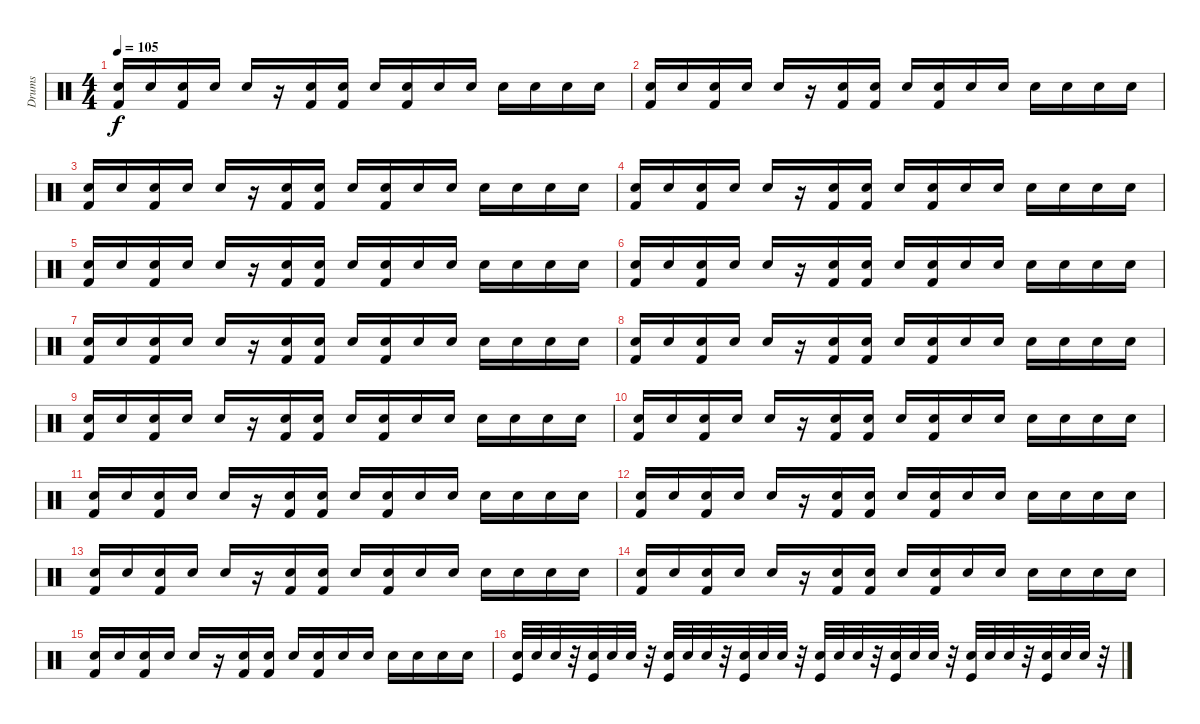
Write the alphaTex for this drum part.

\track ("Drums" "Drums") {instrument percussion}
\staff {score}
\articulation defaults
\ts (4 4)
\tempo 105
\clef neutral
\ks c
("Electric Snare (hit)" "Kick (hit) 2").16{dy f volume 7} "Electric Snare (hit)".16 ("Electric Snare (hit)" "Kick (hit) 2").16 "Electric Snare (hit)".16 "Snare (hit) 2".16{volume 16} r.16 ("Electric Snare (hit)" "Kick (hit) 2").16{volume 7} ("Electric Snare (hit)" "Kick (hit) 2").16 "Electric Snare (hit)".16 ("Snare (hit) 2" "Kick (hit) 2").16{volume 16} "Electric Snare (hit)".16{volume 7} "Electric Snare (hit)".16 "Snare (hit) 2".16{volume 16} "Electric Snare (hit)".16{volume 7} "Electric Snare (hit)".16 "Electric Snare (hit)".16 |
("Electric Snare (hit)" "Kick (hit) 2").16{volume 7} "Electric Snare (hit)".16 ("Electric Snare (hit)" "Kick (hit) 2").16 "Electric Snare (hit)".16 "Snare (hit) 2".16{volume 16} r.16 ("Electric Snare (hit)" "Kick (hit) 2").16{volume 7} ("Electric Snare (hit)" "Kick (hit) 2").16 "Electric Snare (hit)".16 ("Snare (hit) 2" "Kick (hit) 2").16{volume 16} "Electric Snare (hit)".16{volume 7} "Electric Snare (hit)".16 "Snare (hit) 2".16{volume 16} "Electric Snare (hit)".16{volume 7} "Electric Snare (hit)".16 "Electric Snare (hit)".16 |
("Electric Snare (hit)" "Kick (hit) 2").16{volume 7} "Electric Snare (hit)".16 ("Electric Snare (hit)" "Kick (hit) 2").16 "Electric Snare (hit)".16 "Snare (hit) 2".16{volume 16} r.16 ("Electric Snare (hit)" "Kick (hit) 2").16{volume 7} ("Electric Snare (hit)" "Kick (hit) 2").16 "Electric Snare (hit)".16 ("Snare (hit) 2" "Kick (hit) 2").16{volume 16} "Electric Snare (hit)".16{volume 7} "Electric Snare (hit)".16 "Snare (hit) 2".16{volume 16} "Electric Snare (hit)".16{volume 7} "Electric Snare (hit)".16 "Electric Snare (hit)".16 |
("Electric Snare (hit)" "Kick (hit) 2").16{volume 7} "Electric Snare (hit)".16 ("Electric Snare (hit)" "Kick (hit) 2").16 "Electric Snare (hit)".16 "Snare (hit) 2".16{volume 16} r.16 ("Electric Snare (hit)" "Kick (hit) 2").16{volume 7} ("Electric Snare (hit)" "Kick (hit) 2").16 "Electric Snare (hit)".16 ("Snare (hit) 2" "Kick (hit) 2").16{volume 16} "Electric Snare (hit)".16{volume 7} "Electric Snare (hit)".16 "Snare (hit) 2".16{volume 16} "Electric Snare (hit)".16{volume 7} "Electric Snare (hit)".16 "Electric Snare (hit)".16 |
("Electric Snare (hit)" "Kick (hit) 2").16{volume 7} "Electric Snare (hit)".16 ("Electric Snare (hit)" "Kick (hit) 2").16 "Electric Snare (hit)".16 "Snare (hit) 2".16{volume 16} r.16 ("Electric Snare (hit)" "Kick (hit) 2").16{volume 7} ("Electric Snare (hit)" "Kick (hit) 2").16 "Electric Snare (hit)".16 ("Snare (hit) 2" "Kick (hit) 2").16{volume 16} "Electric Snare (hit)".16{volume 7} "Electric Snare (hit)".16 "Snare (hit) 2".16{volume 16} "Electric Snare (hit)".16{volume 7} "Electric Snare (hit)".16 "Electric Snare (hit)".16 |
("Electric Snare (hit)" "Kick (hit) 2").16{volume 7} "Electric Snare (hit)".16 ("Electric Snare (hit)" "Kick (hit) 2").16 "Electric Snare (hit)".16 "Snare (hit) 2".16{volume 16} r.16 ("Electric Snare (hit)" "Kick (hit) 2").16{volume 7} ("Electric Snare (hit)" "Kick (hit) 2").16 "Electric Snare (hit)".16 ("Snare (hit) 2" "Kick (hit) 2").16{volume 16} "Electric Snare (hit)".16{volume 7} "Electric Snare (hit)".16 "Snare (hit) 2".16{volume 16} "Electric Snare (hit)".16{volume 7} "Electric Snare (hit)".16 "Electric Snare (hit)".16 |
("Electric Snare (hit)" "Kick (hit) 2").16{volume 7} "Electric Snare (hit)".16 ("Electric Snare (hit)" "Kick (hit) 2").16 "Electric Snare (hit)".16 "Snare (hit) 2".16{volume 16} r.16 ("Electric Snare (hit)" "Kick (hit) 2").16{volume 7} ("Electric Snare (hit)" "Kick (hit) 2").16 "Electric Snare (hit)".16 ("Snare (hit) 2" "Kick (hit) 2").16{volume 16} "Electric Snare (hit)".16{volume 7} "Electric Snare (hit)".16 "Snare (hit) 2".16{volume 16} "Electric Snare (hit)".16{volume 7} "Electric Snare (hit)".16 "Electric Snare (hit)".16 |
("Electric Snare (hit)" "Kick (hit) 2").16{volume 7} "Electric Snare (hit)".16 ("Electric Snare (hit)" "Kick (hit) 2").16 "Electric Snare (hit)".16 "Snare (hit) 2".16{volume 16} r.16 ("Electric Snare (hit)" "Kick (hit) 2").16{volume 7} ("Electric Snare (hit)" "Kick (hit) 2").16 "Electric Snare (hit)".16 ("Snare (hit) 2" "Kick (hit) 2").16{volume 16} "Electric Snare (hit)".16{volume 7} "Electric Snare (hit)".16 "Snare (hit) 2".16{volume 16} "Electric Snare (hit)".16{volume 7} "Electric Snare (hit)".16 "Electric Snare (hit)".16 |
("Electric Snare (hit)" "Kick (hit) 2").16{volume 7} "Electric Snare (hit)".16 ("Electric Snare (hit)" "Kick (hit) 2").16 "Electric Snare (hit)".16 "Snare (hit) 2".16{volume 16} r.16 ("Electric Snare (hit)" "Kick (hit) 2").16{volume 7} ("Electric Snare (hit)" "Kick (hit) 2").16 "Electric Snare (hit)".16 ("Snare (hit) 2" "Kick (hit) 2").16{volume 16} "Electric Snare (hit)".16{volume 7} "Electric Snare (hit)".16 "Snare (hit) 2".16{volume 16} "Electric Snare (hit)".16{volume 7} "Electric Snare (hit)".16 "Electric Snare (hit)".16 |
("Electric Snare (hit)" "Kick (hit) 2").16{volume 7} "Electric Snare (hit)".16 ("Electric Snare (hit)" "Kick (hit) 2").16 "Electric Snare (hit)".16 "Snare (hit) 2".16{volume 16} r.16 ("Electric Snare (hit)" "Kick (hit) 2").16{volume 7} ("Electric Snare (hit)" "Kick (hit) 2").16 "Electric Snare (hit)".16 ("Snare (hit) 2" "Kick (hit) 2").16{volume 16} "Electric Snare (hit)".16{volume 7} "Electric Snare (hit)".16 "Snare (hit) 2".16{volume 16} "Electric Snare (hit)".16{volume 7} "Electric Snare (hit)".16 "Electric Snare (hit)".16 |
("Electric Snare (hit)" "Kick (hit) 2").16{volume 7} "Electric Snare (hit)".16 ("Electric Snare (hit)" "Kick (hit) 2").16 "Electric Snare (hit)".16 "Snare (hit) 2".16{volume 16} r.16 ("Electric Snare (hit)" "Kick (hit) 2").16{volume 7} ("Electric Snare (hit)" "Kick (hit) 2").16 "Electric Snare (hit)".16 ("Snare (hit) 2" "Kick (hit) 2").16{volume 16} "Electric Snare (hit)".16{volume 7} "Electric Snare (hit)".16 "Snare (hit) 2".16{volume 16} "Electric Snare (hit)".16{volume 7} "Electric Snare (hit)".16 "Electric Snare (hit)".16 |
("Electric Snare (hit)" "Kick (hit) 2").16{volume 7} "Electric Snare (hit)".16 ("Electric Snare (hit)" "Kick (hit) 2").16 "Electric Snare (hit)".16 "Snare (hit) 2".16{volume 16} r.16 ("Electric Snare (hit)" "Kick (hit) 2").16{volume 7} ("Electric Snare (hit)" "Kick (hit) 2").16 "Electric Snare (hit)".16 ("Snare (hit) 2" "Kick (hit) 2").16{volume 16} "Electric Snare (hit)".16{volume 7} "Electric Snare (hit)".16 "Snare (hit) 2".16{volume 16} "Electric Snare (hit)".16{volume 7} "Electric Snare (hit)".16 "Electric Snare (hit)".16 |
("Electric Snare (hit)" "Kick (hit) 2").16{volume 7} "Electric Snare (hit)".16 ("Electric Snare (hit)" "Kick (hit) 2").16 "Electric Snare (hit)".16 "Snare (hit) 2".16{volume 16} r.16 ("Electric Snare (hit)" "Kick (hit) 2").16{volume 7} ("Electric Snare (hit)" "Kick (hit) 2").16 "Electric Snare (hit)".16 ("Snare (hit) 2" "Kick (hit) 2").16{volume 16} "Electric Snare (hit)".16{volume 7} "Electric Snare (hit)".16 "Snare (hit) 2".16{volume 16} "Electric Snare (hit)".16{volume 7} "Electric Snare (hit)".16 "Electric Snare (hit)".16 |
("Electric Snare (hit)" "Kick (hit) 2").16{volume 7} "Electric Snare (hit)".16 ("Electric Snare (hit)" "Kick (hit) 2").16 "Electric Snare (hit)".16 "Snare (hit) 2".16{volume 16} r.16 ("Electric Snare (hit)" "Kick (hit) 2").16{volume 7} ("Electric Snare (hit)" "Kick (hit) 2").16 "Electric Snare (hit)".16 ("Snare (hit) 2" "Kick (hit) 2").16{volume 16} "Electric Snare (hit)".16{volume 7} "Electric Snare (hit)".16 "Snare (hit) 2".16{volume 16} "Electric Snare (hit)".16{volume 7} "Electric Snare (hit)".16 "Electric Snare (hit)".16 |
("Electric Snare (hit)" "Kick (hit) 2").16{volume 7} "Electric Snare (hit)".16 ("Electric Snare (hit)" "Kick (hit) 2").16 "Electric Snare (hit)".16 "Snare (hit) 2".16{volume 16} r.16 ("Electric Snare (hit)" "Kick (hit) 2").16{volume 7} ("Electric Snare (hit)" "Kick (hit) 2").16 "Electric Snare (hit)".16 ("Snare (hit) 2" "Kick (hit) 2").16{volume 16} "Electric Snare (hit)".16{volume 7} "Electric Snare (hit)".16 "Snare (hit) 2".16{volume 16} "Electric Snare (hit)".16{volume 7} "Electric Snare (hit)".16 "Electric Snare (hit)".16 |
("Snare (hit) 2" "Kick (hit)").32{volume 9} "Snare (hit) 2".32 "Snare (hit) 2".32 r.32 ("Snare (hit) 2" "Kick (hit)").32{volume 10} "Snare (hit) 2".32 "Snare (hit) 2".32 r.32 ("Snare (hit) 2" "Kick (hit)").32{volume 11} "Snare (hit) 2".32 "Snare (hit) 2".32 r.32 ("Snare (hit) 2" "Kick (hit)").32{volume 12} "Snare (hit) 2".32 "Snare (hit) 2".32 r.32 ("Snare (hit) 2" "Kick (hit)").32{volume 13} "Snare (hit) 2".32 "Snare (hit) 2".32 r.32 ("Snare (hit) 2" "Kick (hit)").32{volume 14} "Snare (hit) 2".32 "Snare (hit) 2".32 r.32 ("Snare (hit) 2" "Kick (hit)").32{volume 15} "Snare (hit) 2".32 "Snare (hit) 2".32 r.32 ("Snare (hit) 2" "Kick (hit)").32{volume 16} "Snare (hit) 2".32 "Snare (hit) 2".32 r.32
